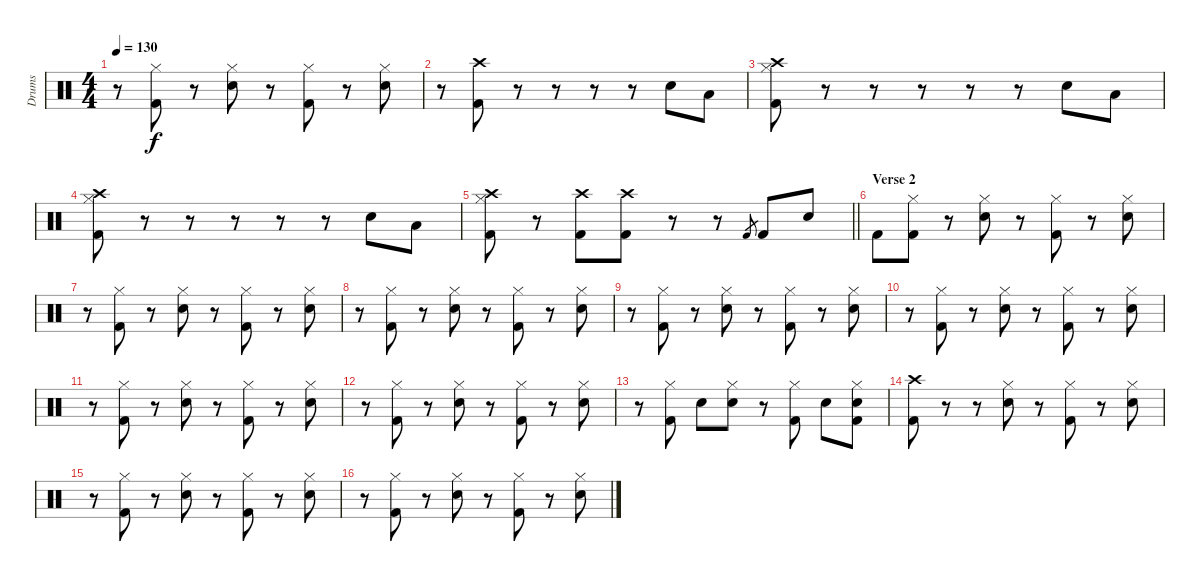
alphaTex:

\track ("Drums" "Drums") {instrument percussion}
\staff {score}
\articulation defaults
\ts (4 4)
\tempo 130
\clef neutral
\ks c
r.8{dy f} ("Hi-Hat (closed)" "Kick (hit) 2").8 r.8 ("Hi-Hat (closed)" "Snare (hit) 2").8 r.8 ("Hi-Hat (closed)" "Kick (hit) 2").8 r.8 ("Hi-Hat (closed)" "Snare (hit) 2").8 |
r.8 ("Crash high (hit)" "Kick (hit) 2").8 r.8 r.8 r.8 r.8 "Snare (hit) 2".8 "Low Tom (hit)".8 |
("Hi-Hat (closed)" "Crash high (hit)" "Kick (hit) 2").8 r.8 r.8 r.8 r.8 r.8 "Snare (hit) 2".8 "Low Tom (hit)".8 |
("Hi-Hat (closed)" "Crash high (hit)" "Kick (hit) 2").8 r.8 r.8 r.8 r.8 r.8 "Snare (hit) 2".8 "Low Tom (hit)".8 |
\barLineRight lightlight
("Hi-Hat (closed)" "Crash high (hit)" "Kick (hit) 2").8 r.8 ("Crash high (hit)" "Kick (hit) 2").8 ("Crash high (hit)" "Kick (hit) 2").8 r.8 r.8 "Kick (hit) 2".8{gr} "Kick (hit) 2".8 "Snare (hit) 2".8 |
\section ("" "Verse 2")
"Kick (hit) 2".8 ("Hi-Hat (closed)" "Kick (hit) 2").8 r.8 ("Hi-Hat (closed)" "Snare (hit) 2").8 r.8 ("Hi-Hat (closed)" "Kick (hit) 2").8 r.8 ("Hi-Hat (closed)" "Snare (hit) 2").8 |
r.8 ("Hi-Hat (closed)" "Kick (hit) 2").8 r.8 ("Hi-Hat (closed)" "Snare (hit) 2").8 r.8 ("Hi-Hat (closed)" "Kick (hit) 2").8 r.8 ("Hi-Hat (closed)" "Snare (hit) 2").8 |
r.8 ("Hi-Hat (closed)" "Kick (hit) 2").8 r.8 ("Hi-Hat (closed)" "Snare (hit) 2").8 r.8 ("Hi-Hat (closed)" "Kick (hit) 2").8 r.8 ("Hi-Hat (closed)" "Snare (hit) 2").8 |
r.8 ("Hi-Hat (closed)" "Kick (hit) 2").8 r.8 ("Hi-Hat (closed)" "Snare (hit) 2").8 r.8 ("Hi-Hat (closed)" "Kick (hit) 2").8 r.8 ("Hi-Hat (closed)" "Snare (hit) 2").8 |
r.8 ("Hi-Hat (closed)" "Kick (hit) 2").8 r.8 ("Hi-Hat (closed)" "Snare (hit) 2").8 r.8 ("Hi-Hat (closed)" "Kick (hit) 2").8 r.8 ("Hi-Hat (closed)" "Snare (hit) 2").8 |
r.8 ("Hi-Hat (closed)" "Kick (hit) 2").8 r.8 ("Hi-Hat (closed)" "Snare (hit) 2").8 r.8 ("Hi-Hat (closed)" "Kick (hit) 2").8 r.8 ("Hi-Hat (closed)" "Snare (hit) 2").8 |
r.8 ("Hi-Hat (closed)" "Kick (hit) 2").8 r.8 ("Hi-Hat (closed)" "Snare (hit) 2").8 r.8 ("Hi-Hat (closed)" "Kick (hit) 2").8 r.8 ("Hi-Hat (closed)" "Snare (hit) 2").8 |
r.8 ("Hi-Hat (closed)" "Kick (hit) 2").8 "Snare (hit) 2".8 ("Hi-Hat (closed)" "Snare (hit) 2").8 r.8 ("Hi-Hat (closed)" "Kick (hit) 2").8 "Snare (hit) 2".8 ("Hi-Hat (closed)" "Snare (hit) 2" "Kick (hit) 2").8 |
("Crash high (hit)" "Kick (hit) 2").8 r.8 r.8 ("Hi-Hat (closed)" "Snare (hit) 2").8 r.8 ("Hi-Hat (closed)" "Kick (hit) 2").8 r.8 ("Hi-Hat (closed)" "Snare (hit) 2").8 |
r.8 ("Hi-Hat (closed)" "Kick (hit) 2").8 r.8 ("Hi-Hat (closed)" "Snare (hit) 2").8 r.8 ("Hi-Hat (closed)" "Kick (hit) 2").8 r.8 ("Hi-Hat (closed)" "Snare (hit) 2").8 |
r.8 ("Hi-Hat (closed)" "Kick (hit) 2").8 r.8 ("Hi-Hat (closed)" "Snare (hit) 2").8 r.8 ("Hi-Hat (closed)" "Kick (hit) 2").8 r.8 ("Hi-Hat (closed)" "Snare (hit) 2").8
